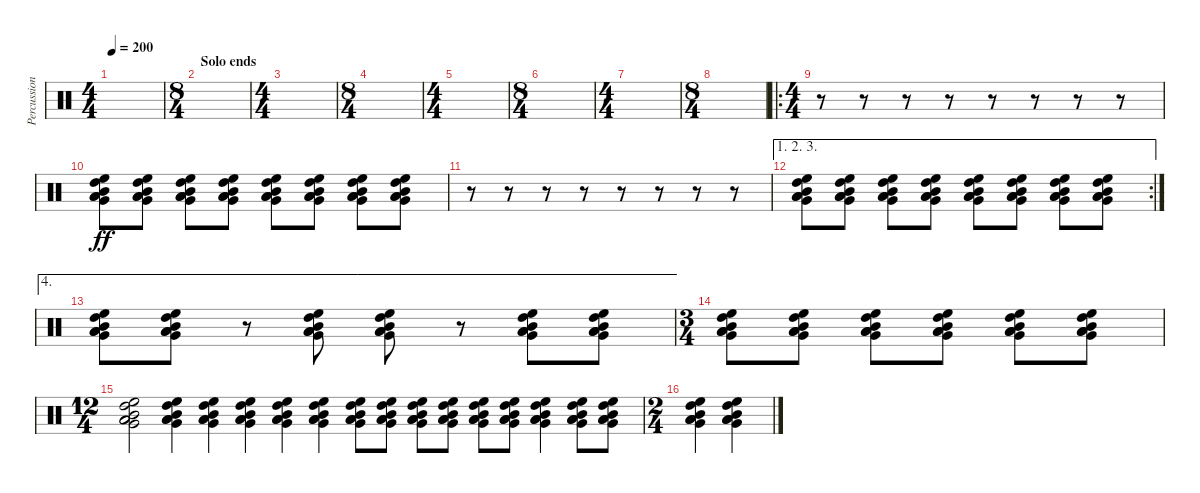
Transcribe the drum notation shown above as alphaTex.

\track ("Percussion" "Percussion") {instrument percussion}
\staff {score}
\articulation defaults
\ts (4 4)
\tempo 200
\clef neutral
\ks c
|
\ts (8 4)
\section ("" "Solo ends")
|
\ts (4 4)
|
\ts (8 4)
|
\ts (4 4)
|
\ts (8 4)
|
\ts (4 4)
|
\ts (8 4)
|
\ro
\ts (4 4)
r.8 r.8 r.8 r.8 r.8 r.8 r.8 r.8 |
("High Floor Tom (hit)" "High Tom (hit)" "Mid Tom (hit)" "Low Tom (hit)" "Very Low Tom (hit)" "Low Floor Tom (hit)").8{dy ff} ("High Floor Tom (hit)" "High Tom (hit)" "Mid Tom (hit)" "Low Tom (hit)" "Very Low Tom (hit)" "Low Floor Tom (hit)").8 ("High Floor Tom (hit)" "High Tom (hit)" "Mid Tom (hit)" "Low Tom (hit)" "Very Low Tom (hit)" "Low Floor Tom (hit)").8 ("High Floor Tom (hit)" "High Tom (hit)" "Mid Tom (hit)" "Low Tom (hit)" "Very Low Tom (hit)" "Low Floor Tom (hit)").8 ("High Floor Tom (hit)" "High Tom (hit)" "Mid Tom (hit)" "Low Tom (hit)" "Very Low Tom (hit)" "Low Floor Tom (hit)").8 ("High Floor Tom (hit)" "High Tom (hit)" "Mid Tom (hit)" "Low Tom (hit)" "Very Low Tom (hit)" "Low Floor Tom (hit)").8 ("High Floor Tom (hit)" "High Tom (hit)" "Mid Tom (hit)" "Low Tom (hit)" "Very Low Tom (hit)" "Low Floor Tom (hit)").8 ("High Floor Tom (hit)" "High Tom (hit)" "Mid Tom (hit)" "Low Tom (hit)" "Very Low Tom (hit)" "Low Floor Tom (hit)").8 |
r.8 r.8 r.8 r.8 r.8 r.8 r.8 r.8 |
\ae (1 2 3)
\rc 2
("High Floor Tom (hit)" "High Tom (hit)" "Mid Tom (hit)" "Low Tom (hit)" "Very Low Tom (hit)" "Low Floor Tom (hit)").8 ("High Floor Tom (hit)" "High Tom (hit)" "Mid Tom (hit)" "Low Tom (hit)" "Very Low Tom (hit)" "Low Floor Tom (hit)").8 ("High Floor Tom (hit)" "High Tom (hit)" "Mid Tom (hit)" "Low Tom (hit)" "Very Low Tom (hit)" "Low Floor Tom (hit)").8 ("High Floor Tom (hit)" "High Tom (hit)" "Mid Tom (hit)" "Low Tom (hit)" "Very Low Tom (hit)" "Low Floor Tom (hit)").8 ("High Floor Tom (hit)" "High Tom (hit)" "Mid Tom (hit)" "Low Tom (hit)" "Very Low Tom (hit)" "Low Floor Tom (hit)").8 ("High Floor Tom (hit)" "High Tom (hit)" "Mid Tom (hit)" "Low Tom (hit)" "Very Low Tom (hit)" "Low Floor Tom (hit)").8 ("High Floor Tom (hit)" "High Tom (hit)" "Mid Tom (hit)" "Low Tom (hit)" "Very Low Tom (hit)" "Low Floor Tom (hit)").8 ("High Floor Tom (hit)" "High Tom (hit)" "Mid Tom (hit)" "Low Tom (hit)" "Very Low Tom (hit)" "Low Floor Tom (hit)").8 |
\ae 4
("High Floor Tom (hit)" "High Tom (hit)" "Mid Tom (hit)" "Low Tom (hit)" "Very Low Tom (hit)" "Low Floor Tom (hit)").8 ("High Floor Tom (hit)" "High Tom (hit)" "Mid Tom (hit)" "Low Tom (hit)" "Very Low Tom (hit)" "Low Floor Tom (hit)").8 r.8 ("High Floor Tom (hit)" "High Tom (hit)" "Mid Tom (hit)" "Low Tom (hit)" "Very Low Tom (hit)" "Low Floor Tom (hit)").8 ("High Floor Tom (hit)" "High Tom (hit)" "Mid Tom (hit)" "Low Tom (hit)" "Very Low Tom (hit)" "Low Floor Tom (hit)").8 r.8 ("High Floor Tom (hit)" "High Tom (hit)" "Mid Tom (hit)" "Low Tom (hit)" "Very Low Tom (hit)" "Low Floor Tom (hit)").8 ("High Floor Tom (hit)" "High Tom (hit)" "Mid Tom (hit)" "Low Tom (hit)" "Very Low Tom (hit)" "Low Floor Tom (hit)").8 |
\ts (3 4)
("High Floor Tom (hit)" "High Tom (hit)" "Mid Tom (hit)" "Low Tom (hit)" "Very Low Tom (hit)" "Low Floor Tom (hit)").8 ("High Floor Tom (hit)" "High Tom (hit)" "Mid Tom (hit)" "Low Tom (hit)" "Very Low Tom (hit)" "Low Floor Tom (hit)").8 ("High Floor Tom (hit)" "High Tom (hit)" "Mid Tom (hit)" "Low Tom (hit)" "Very Low Tom (hit)" "Low Floor Tom (hit)").8 ("High Floor Tom (hit)" "High Tom (hit)" "Mid Tom (hit)" "Low Tom (hit)" "Very Low Tom (hit)" "Low Floor Tom (hit)").8 ("High Floor Tom (hit)" "High Tom (hit)" "Mid Tom (hit)" "Low Tom (hit)" "Very Low Tom (hit)" "Low Floor Tom (hit)").8 ("High Floor Tom (hit)" "High Tom (hit)" "Mid Tom (hit)" "Low Tom (hit)" "Very Low Tom (hit)" "Low Floor Tom (hit)").8 |
\ts (12 4)
("High Floor Tom (hit)" "High Tom (hit)" "Mid Tom (hit)" "Low Tom (hit)" "Very Low Tom (hit)" "Low Floor Tom (hit)").2 ("High Floor Tom (hit)" "High Tom (hit)" "Mid Tom (hit)" "Low Tom (hit)" "Very Low Tom (hit)" "Low Floor Tom (hit)").4 ("High Floor Tom (hit)" "High Tom (hit)" "Mid Tom (hit)" "Low Tom (hit)" "Very Low Tom (hit)" "Low Floor Tom (hit)").4 ("High Floor Tom (hit)" "High Tom (hit)" "Mid Tom (hit)" "Low Tom (hit)" "Very Low Tom (hit)" "Low Floor Tom (hit)").4 ("High Floor Tom (hit)" "High Tom (hit)" "Mid Tom (hit)" "Low Tom (hit)" "Very Low Tom (hit)" "Low Floor Tom (hit)").4 ("High Floor Tom (hit)" "High Tom (hit)" "Mid Tom (hit)" "Low Tom (hit)" "Very Low Tom (hit)" "Low Floor Tom (hit)").4 ("High Floor Tom (hit)" "High Tom (hit)" "Mid Tom (hit)" "Low Tom (hit)" "Very Low Tom (hit)" "Low Floor Tom (hit)").8 ("High Floor Tom (hit)" "High Tom (hit)" "Mid Tom (hit)" "Low Tom (hit)" "Very Low Tom (hit)" "Low Floor Tom (hit)").8 ("High Floor Tom (hit)" "High Tom (hit)" "Mid Tom (hit)" "Low Tom (hit)" "Very Low Tom (hit)" "Low Floor Tom (hit)").8 ("High Floor Tom (hit)" "High Tom (hit)" "Mid Tom (hit)" "Low Tom (hit)" "Very Low Tom (hit)" "Low Floor Tom (hit)").8 ("High Floor Tom (hit)" "High Tom (hit)" "Mid Tom (hit)" "Low Tom (hit)" "Very Low Tom (hit)" "Low Floor Tom (hit)").8 ("High Floor Tom (hit)" "High Tom (hit)" "Mid Tom (hit)" "Low Tom (hit)" "Very Low Tom (hit)" "Low Floor Tom (hit)").8 ("High Floor Tom (hit)" "High Tom (hit)" "Mid Tom (hit)" "Low Tom (hit)" "Very Low Tom (hit)" "Low Floor Tom (hit)").4 ("High Floor Tom (hit)" "High Tom (hit)" "Mid Tom (hit)" "Low Tom (hit)" "Very Low Tom (hit)" "Low Floor Tom (hit)").8 ("High Floor Tom (hit)" "High Tom (hit)" "Mid Tom (hit)" "Low Tom (hit)" "Very Low Tom (hit)" "Low Floor Tom (hit)").8 |
\ts (2 4)
("High Floor Tom (hit)" "High Tom (hit)" "Mid Tom (hit)" "Low Tom (hit)" "Very Low Tom (hit)" "Low Floor Tom (hit)").4 ("High Floor Tom (hit)" "High Tom (hit)" "Mid Tom (hit)" "Low Tom (hit)" "Very Low Tom (hit)" "Low Floor Tom (hit)").4
